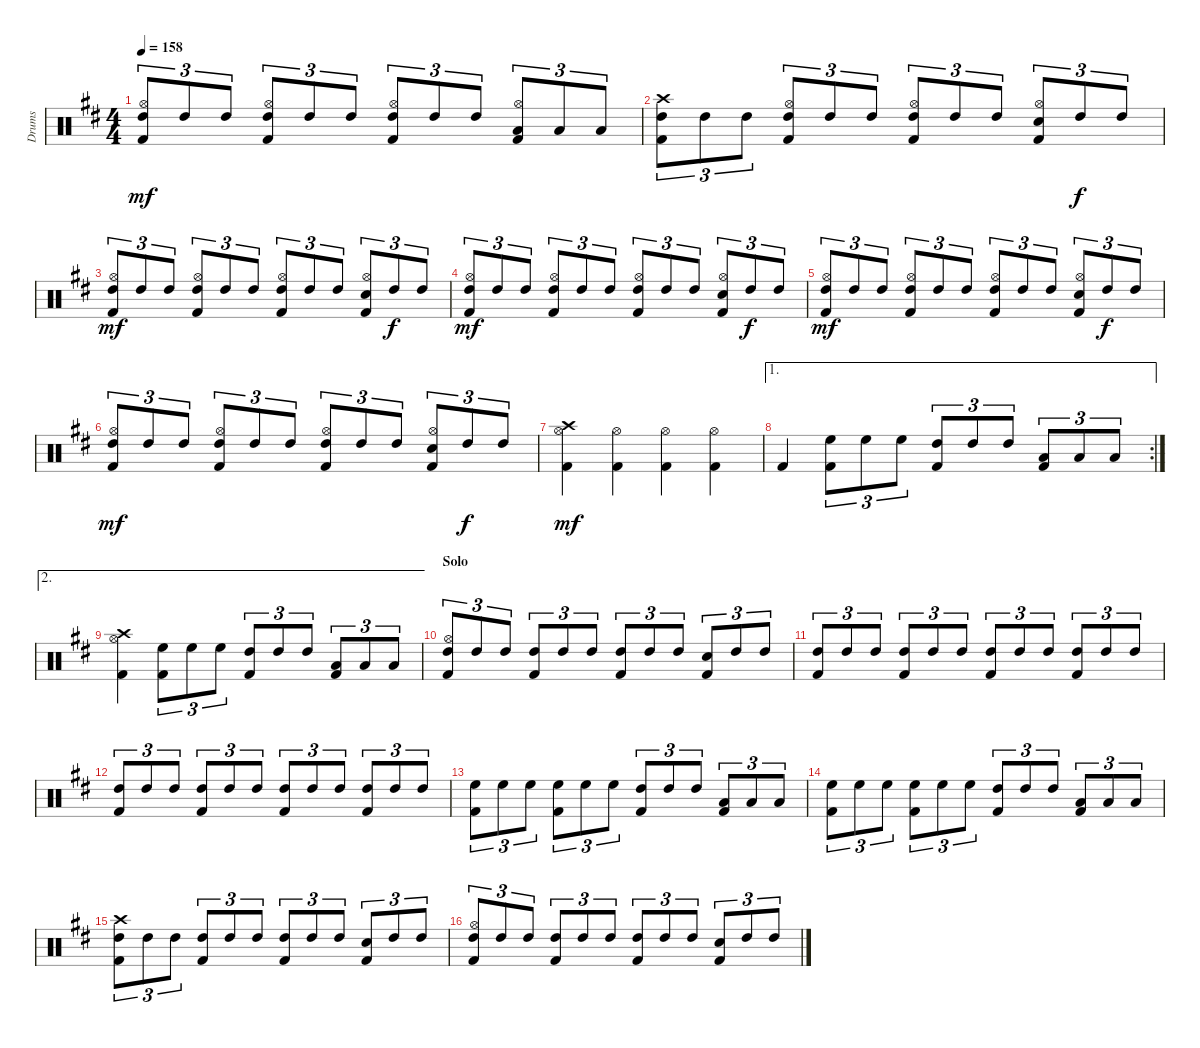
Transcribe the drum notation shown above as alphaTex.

\track ("Drums" "Drums") {instrument percussion}
\staff {score}
\articulation defaults
\ts (4 4)
\tempo 158
\clef neutral
\ks d
("Kick (hit) 2" "Hi-Hat (open)" "High Tom (hit)").8{tu (3 2) dy mf} "High Tom (hit)".8{tu (3 2)} "High Tom (hit)".8{tu (3 2)} ("Kick (hit) 2" "Hi-Hat (open)" "High Tom (hit)").8{tu (3 2)} "High Tom (hit)".8{tu (3 2)} "High Tom (hit)".8{tu (3 2)} ("Kick (hit) 2" "Hi-Hat (open)" "High Tom (hit)").8{tu (3 2)} "High Tom (hit)".8{tu (3 2)} "High Tom (hit)".8{tu (3 2)} ("Kick (hit) 2" "Hi-Hat (open)" "Low Tom (hit)").8{tu (3 2)} "Low Tom (hit)".8{tu (3 2)} "Low Tom (hit)".8{tu (3 2)} |
("Kick (hit) 2" "High Tom (hit)" "Crash high (hit)").8{tu (3 2)} "High Tom (hit)".8{tu (3 2)} "High Tom (hit)".8{tu (3 2)} ("Kick (hit) 2" "Hi-Hat (open)" "High Tom (hit)").8{tu (3 2)} "High Tom (hit)".8{tu (3 2)} "High Tom (hit)".8{tu (3 2)} ("Kick (hit) 2" "Hi-Hat (open)" "High Tom (hit)").8{tu (3 2)} "High Tom (hit)".8{tu (3 2)} "High Tom (hit)".8{tu (3 2)} ("Kick (hit) 2" "Snare (hit) 2" "Hi-Hat (open)").8{tu (3 2)} "High Tom (hit)".8{tu (3 2) dy f} "High Tom (hit)".8{tu (3 2)} |
("Kick (hit) 2" "Hi-Hat (open)" "High Tom (hit)").8{tu (3 2) dy mf} "High Tom (hit)".8{tu (3 2)} "High Tom (hit)".8{tu (3 2)} ("Kick (hit) 2" "Hi-Hat (open)" "High Tom (hit)").8{tu (3 2)} "High Tom (hit)".8{tu (3 2)} "High Tom (hit)".8{tu (3 2)} ("Kick (hit) 2" "Hi-Hat (open)" "High Tom (hit)").8{tu (3 2)} "High Tom (hit)".8{tu (3 2)} "High Tom (hit)".8{tu (3 2)} ("Kick (hit) 2" "Snare (hit) 2" "Hi-Hat (open)").8{tu (3 2)} "High Tom (hit)".8{tu (3 2) dy f} "High Tom (hit)".8{tu (3 2)} |
("Kick (hit) 2" "Hi-Hat (open)" "High Tom (hit)").8{tu (3 2) dy mf} "High Tom (hit)".8{tu (3 2)} "High Tom (hit)".8{tu (3 2)} ("Kick (hit) 2" "Hi-Hat (open)" "High Tom (hit)").8{tu (3 2)} "High Tom (hit)".8{tu (3 2)} "High Tom (hit)".8{tu (3 2)} ("Kick (hit) 2" "Hi-Hat (open)" "High Tom (hit)").8{tu (3 2)} "High Tom (hit)".8{tu (3 2)} "High Tom (hit)".8{tu (3 2)} ("Kick (hit) 2" "Snare (hit) 2" "Hi-Hat (open)").8{tu (3 2)} "High Tom (hit)".8{tu (3 2) dy f} "High Tom (hit)".8{tu (3 2)} |
("Kick (hit) 2" "Hi-Hat (open)" "High Tom (hit)").8{tu (3 2) dy mf} "High Tom (hit)".8{tu (3 2)} "High Tom (hit)".8{tu (3 2)} ("Kick (hit) 2" "Hi-Hat (open)" "High Tom (hit)").8{tu (3 2)} "High Tom (hit)".8{tu (3 2)} "High Tom (hit)".8{tu (3 2)} ("Kick (hit) 2" "Hi-Hat (open)" "High Tom (hit)").8{tu (3 2)} "High Tom (hit)".8{tu (3 2)} "High Tom (hit)".8{tu (3 2)} ("Kick (hit) 2" "Snare (hit) 2" "Hi-Hat (open)").8{tu (3 2)} "High Tom (hit)".8{tu (3 2) dy f} "High Tom (hit)".8{tu (3 2)} |
("Kick (hit) 2" "Hi-Hat (open)" "High Tom (hit)").8{tu (3 2) dy mf} "High Tom (hit)".8{tu (3 2)} "High Tom (hit)".8{tu (3 2)} ("Kick (hit) 2" "Hi-Hat (open)" "High Tom (hit)").8{tu (3 2)} "High Tom (hit)".8{tu (3 2)} "High Tom (hit)".8{tu (3 2)} ("Kick (hit) 2" "Hi-Hat (open)" "High Tom (hit)").8{tu (3 2)} "High Tom (hit)".8{tu (3 2)} "High Tom (hit)".8{tu (3 2)} ("Kick (hit) 2" "Snare (hit) 2" "Hi-Hat (open)").8{tu (3 2)} "High Tom (hit)".8{tu (3 2) dy f} "High Tom (hit)".8{tu (3 2)} |
("Kick (hit) 2" "Hi-Hat (open)" "Crash high (hit)").4{dy mf} ("Kick (hit) 2" "Hi-Hat (open)").4 ("Kick (hit) 2" "Hi-Hat (open)").4 ("Kick (hit) 2" "Hi-Hat (open)").4 |
\ae 1
\rc 2 "Kick (hit) 2".4
("Kick (hit) 2" "High Floor Tom (hit)").8{tu (3 2)} "High Floor Tom (hit)".8{tu (3 2)} "High Floor Tom (hit)".8{tu (3 2)} ("Kick (hit) 2" "High Tom (hit)").8{tu (3 2)} "High Tom (hit)".8{tu (3 2)} "High Tom (hit)".8{tu (3 2)} ("Kick (hit) 2" "Low Tom (hit)").8{tu (3 2)} "Low Tom (hit)".8{tu (3 2)} "Low Tom (hit)".8{tu (3 2)} |
\ae 2
("Kick (hit) 2" "Hi-Hat (open)" "Crash high (hit)").4 ("Kick (hit) 2" "High Floor Tom (hit)").8{tu (3 2)} "High Floor Tom (hit)".8{tu (3 2)} "High Floor Tom (hit)".8{tu (3 2)} ("Kick (hit) 2" "High Tom (hit)").8{tu (3 2)} "High Tom (hit)".8{tu (3 2)} "High Tom (hit)".8{tu (3 2)} ("Kick (hit) 2" "Low Tom (hit)").8{tu (3 2)} "Low Tom (hit)".8{tu (3 2)} "Low Tom (hit)".8{tu (3 2)} |
\section ("" "Solo")
("Kick (hit) 2" "Hi-Hat (open)" "High Tom (hit)").8{tu (3 2)} "High Tom (hit)".8{tu (3 2)} "High Tom (hit)".8{tu (3 2)} ("Kick (hit) 2" "High Tom (hit)").8{tu (3 2)} "High Tom (hit)".8{tu (3 2)} "High Tom (hit)".8{tu (3 2)} ("Kick (hit) 2" "High Tom (hit)").8{tu (3 2)} "High Tom (hit)".8{tu (3 2)} "High Tom (hit)".8{tu (3 2)} ("Kick (hit) 2" "Snare (hit) 2").8{tu (3 2)} "High Tom (hit)".8{tu (3 2)} "High Tom (hit)".8{tu (3 2)} |
("Kick (hit) 2" "High Tom (hit)").8{tu (3 2)} "High Tom (hit)".8{tu (3 2)} "High Tom (hit)".8{tu (3 2)} ("Kick (hit) 2" "High Tom (hit)").8{tu (3 2)} "High Tom (hit)".8{tu (3 2)} "High Tom (hit)".8{tu (3 2)} ("Kick (hit) 2" "High Tom (hit)").8{tu (3 2)} "High Tom (hit)".8{tu (3 2)} "High Tom (hit)".8{tu (3 2)} ("Kick (hit) 2" "High Tom (hit)").8{tu (3 2)} "High Tom (hit)".8{tu (3 2)} "High Tom (hit)".8{tu (3 2)} |
("Kick (hit) 2" "High Tom (hit)").8{tu (3 2)} "High Tom (hit)".8{tu (3 2)} "High Tom (hit)".8{tu (3 2)} ("Kick (hit) 2" "High Tom (hit)").8{tu (3 2)} "High Tom (hit)".8{tu (3 2)} "High Tom (hit)".8{tu (3 2)} ("Kick (hit) 2" "High Tom (hit)").8{tu (3 2)} "High Tom (hit)".8{tu (3 2)} "High Tom (hit)".8{tu (3 2)} ("Kick (hit) 2" "High Tom (hit)").8{tu (3 2)} "High Tom (hit)".8{tu (3 2)} "High Tom (hit)".8{tu (3 2)} |
("Kick (hit) 2" "High Floor Tom (hit)").8{tu (3 2)} "High Floor Tom (hit)".8{tu (3 2)} "High Floor Tom (hit)".8{tu (3 2)} ("Kick (hit) 2" "High Floor Tom (hit)").8{tu (3 2)} "High Floor Tom (hit)".8{tu (3 2)} "High Floor Tom (hit)".8{tu (3 2)} ("Kick (hit) 2" "High Tom (hit)").8{tu (3 2)} "High Tom (hit)".8{tu (3 2)} "High Tom (hit)".8{tu (3 2)} ("Kick (hit) 2" "Low Tom (hit)").8{tu (3 2)} "Low Tom (hit)".8{tu (3 2)} "Low Tom (hit)".8{tu (3 2)} |
("Kick (hit) 2" "High Floor Tom (hit)").8{tu (3 2)} "High Floor Tom (hit)".8{tu (3 2)} "High Floor Tom (hit)".8{tu (3 2)} ("Kick (hit) 2" "High Floor Tom (hit)").8{tu (3 2)} "High Floor Tom (hit)".8{tu (3 2)} "High Floor Tom (hit)".8{tu (3 2)} ("Kick (hit) 2" "High Tom (hit)").8{tu (3 2)} "High Tom (hit)".8{tu (3 2)} "High Tom (hit)".8{tu (3 2)} ("Kick (hit) 2" "Low Tom (hit)").8{tu (3 2)} "Low Tom (hit)".8{tu (3 2)} "Low Tom (hit)".8{tu (3 2)} |
("Kick (hit) 2" "High Tom (hit)" "Crash high (hit)").8{tu (3 2)} "High Tom (hit)".8{tu (3 2)} "High Tom (hit)".8{tu (3 2)} ("Kick (hit) 2" "High Tom (hit)").8{tu (3 2)} "High Tom (hit)".8{tu (3 2)} "High Tom (hit)".8{tu (3 2)} ("Kick (hit) 2" "High Tom (hit)").8{tu (3 2)} "High Tom (hit)".8{tu (3 2)} "High Tom (hit)".8{tu (3 2)} ("Kick (hit) 2" "Snare (hit) 2").8{tu (3 2)} "High Tom (hit)".8{tu (3 2)} "High Tom (hit)".8{tu (3 2)} |
("Kick (hit) 2" "Hi-Hat (open)" "High Tom (hit)").8{tu (3 2)} "High Tom (hit)".8{tu (3 2)} "High Tom (hit)".8{tu (3 2)} ("Kick (hit) 2" "High Tom (hit)").8{tu (3 2)} "High Tom (hit)".8{tu (3 2)} "High Tom (hit)".8{tu (3 2)} ("Kick (hit) 2" "High Tom (hit)").8{tu (3 2)} "High Tom (hit)".8{tu (3 2)} "High Tom (hit)".8{tu (3 2)} ("Kick (hit) 2" "Snare (hit) 2").8{tu (3 2)} "High Tom (hit)".8{tu (3 2)} "High Tom (hit)".8{tu (3 2)}
